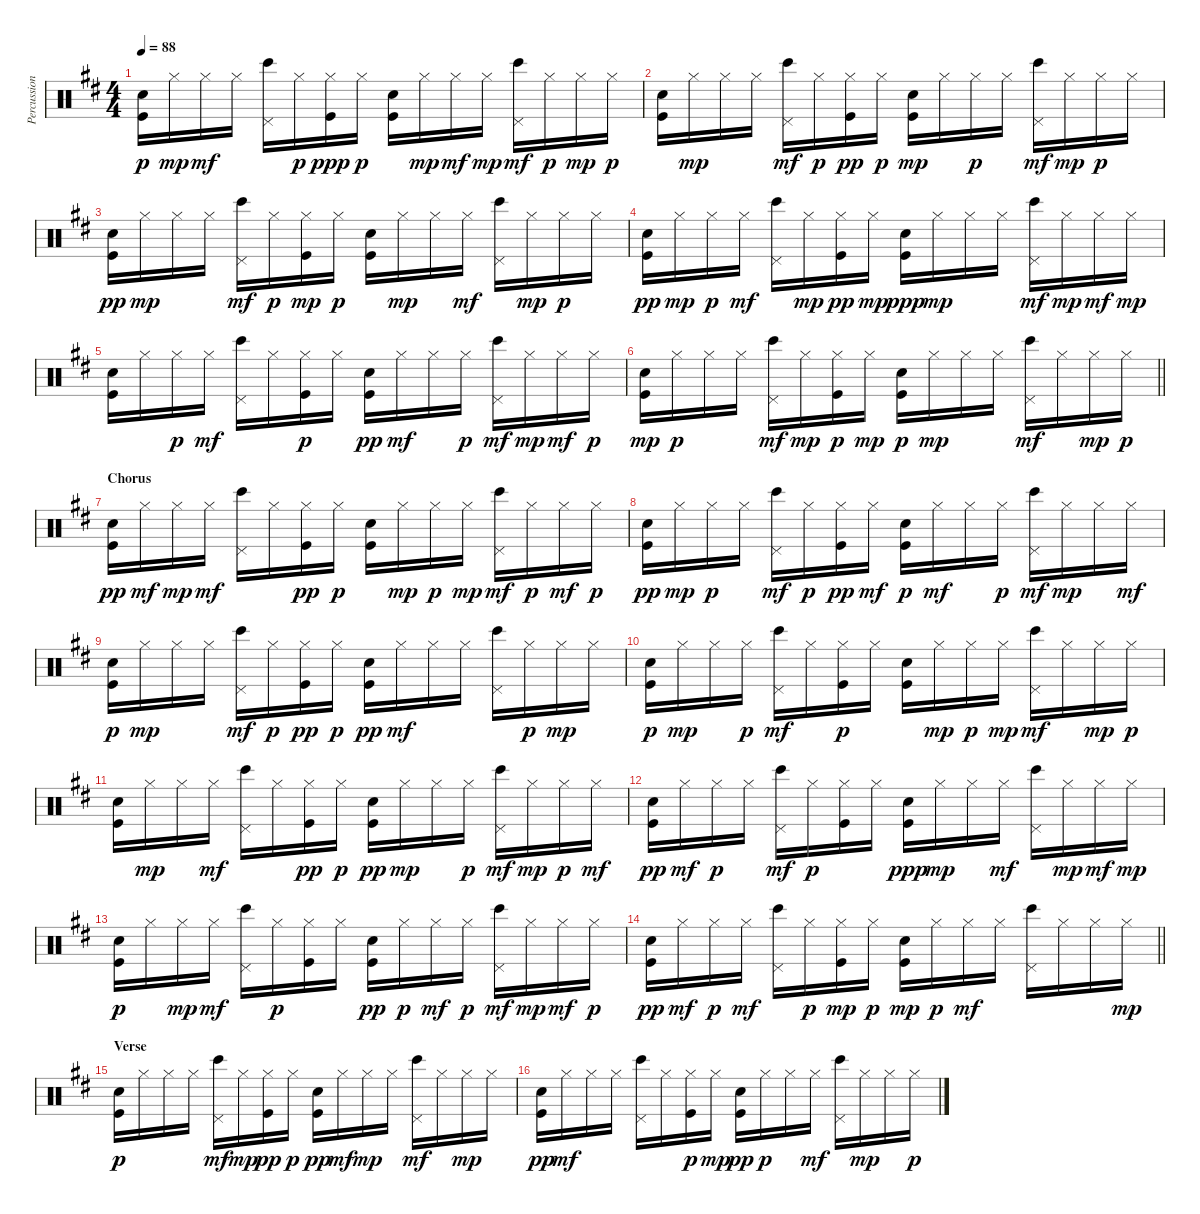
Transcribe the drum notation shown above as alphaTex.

\track ("Percussion" "Percussion") {instrument percussion}
\staff {score}
\articulation defaults
\ts (4 4)
\tempo 88
\clef neutral
\ks d
("Snare (hit)" "Kick (hit)").16{dy p} "Hi-Hat (closed)".16{dy mp} "Hi-Hat (closed)".16{dy mf} "Hi-Hat (closed)".16 ("Bongo High (hit)" "Pedal Hi-Hat (hit)").16 "Hi-Hat (closed)".16{dy p} ("Hi-Hat (closed)" "Kick (hit)").16{dy ppp} "Hi-Hat (closed)".16{dy p} ("Snare (hit)" "Kick (hit)").16 "Hi-Hat (closed)".16{dy mp} "Hi-Hat (closed)".16{dy mf} "Hi-Hat (closed)".16{dy mp} ("Bongo High (hit)" "Pedal Hi-Hat (hit)").16{dy mf} "Hi-Hat (closed)".16{dy p} "Hi-Hat (closed)".16{dy mp} "Hi-Hat (closed)".16{dy p} |
("Snare (hit)" "Kick (hit)").16 "Hi-Hat (closed)".16{dy mp} "Hi-Hat (closed)".16 "Hi-Hat (closed)".16 ("Bongo High (hit)" "Pedal Hi-Hat (hit)").16{dy mf} "Hi-Hat (closed)".16{dy p} ("Hi-Hat (closed)" "Kick (hit)").16{dy pp} "Hi-Hat (closed)".16{dy p} ("Snare (hit)" "Kick (hit)").16{dy mp} "Hi-Hat (closed)".16 "Hi-Hat (closed)".16{dy p} "Hi-Hat (closed)".16 ("Bongo High (hit)" "Pedal Hi-Hat (hit)").16{dy mf} "Hi-Hat (closed)".16{dy mp} "Hi-Hat (closed)".16{dy p} "Hi-Hat (closed)".16 |
("Snare (hit)" "Kick (hit)").16{dy pp} "Hi-Hat (closed)".16{dy mp} "Hi-Hat (closed)".16 "Hi-Hat (closed)".16 ("Bongo High (hit)" "Pedal Hi-Hat (hit)").16{dy mf} "Hi-Hat (closed)".16{dy p} ("Hi-Hat (closed)" "Kick (hit)").16{dy mp} "Hi-Hat (closed)".16{dy p} ("Snare (hit)" "Kick (hit)").16 "Hi-Hat (closed)".16{dy mp} "Hi-Hat (closed)".16 "Hi-Hat (closed)".16{dy mf} ("Bongo High (hit)" "Pedal Hi-Hat (hit)").16 "Hi-Hat (closed)".16{dy mp} "Hi-Hat (closed)".16{dy p} "Hi-Hat (closed)".16 |
("Snare (hit)" "Kick (hit)").16{dy pp} "Hi-Hat (closed)".16{dy mp} "Hi-Hat (closed)".16{dy p} "Hi-Hat (closed)".16{dy mf} ("Bongo High (hit)" "Pedal Hi-Hat (hit)").16 "Hi-Hat (closed)".16{dy mp} ("Hi-Hat (closed)" "Kick (hit)").16{dy pp} "Hi-Hat (closed)".16{dy mp} ("Snare (hit)" "Kick (hit)").16{dy ppp} "Hi-Hat (closed)".16{dy mp} "Hi-Hat (closed)".16 "Hi-Hat (closed)".16 ("Bongo High (hit)" "Pedal Hi-Hat (hit)").16{dy mf} "Hi-Hat (closed)".16{dy mp} "Hi-Hat (closed)".16{dy mf} "Hi-Hat (closed)".16{dy mp} |
("Snare (hit)" "Kick (hit)").16 "Hi-Hat (closed)".16 "Hi-Hat (closed)".16{dy p} "Hi-Hat (closed)".16{dy mf} ("Bongo High (hit)" "Pedal Hi-Hat (hit)").16 "Hi-Hat (closed)".16 ("Hi-Hat (closed)" "Kick (hit)").16{dy p} "Hi-Hat (closed)".16 ("Snare (hit)" "Kick (hit)").16{dy pp} "Hi-Hat (closed)".16{dy mf} "Hi-Hat (closed)".16 "Hi-Hat (closed)".16{dy p} ("Bongo High (hit)" "Pedal Hi-Hat (hit)").16{dy mf} "Hi-Hat (closed)".16{dy mp} "Hi-Hat (closed)".16{dy mf} "Hi-Hat (closed)".16{dy p} |
\barLineRight lightlight
("Snare (hit)" "Kick (hit)").16{dy mp} "Hi-Hat (closed)".16{dy p} "Hi-Hat (closed)".16 "Hi-Hat (closed)".16 ("Bongo High (hit)" "Pedal Hi-Hat (hit)").16{dy mf} "Hi-Hat (closed)".16{dy mp} ("Hi-Hat (closed)" "Kick (hit)").16{dy p} "Hi-Hat (closed)".16{dy mp} ("Snare (hit)" "Kick (hit)").16{dy p} "Hi-Hat (closed)".16{dy mp} "Hi-Hat (closed)".16 "Hi-Hat (closed)".16 ("Bongo High (hit)" "Pedal Hi-Hat (hit)").16{dy mf} "Hi-Hat (closed)".16 "Hi-Hat (closed)".16{dy mp} "Hi-Hat (closed)".16{dy p} |
\section ("" "Chorus")
("Snare (hit)" "Kick (hit)").16{dy pp} "Hi-Hat (closed)".16{dy mf} "Hi-Hat (closed)".16{dy mp} "Hi-Hat (closed)".16{dy mf} ("Bongo High (hit)" "Pedal Hi-Hat (hit)").16 "Hi-Hat (closed)".16 ("Hi-Hat (closed)" "Kick (hit)").16{dy pp} "Hi-Hat (closed)".16{dy p} ("Snare (hit)" "Kick (hit)").16 "Hi-Hat (closed)".16{dy mp} "Hi-Hat (closed)".16{dy p} "Hi-Hat (closed)".16{dy mp} ("Bongo High (hit)" "Pedal Hi-Hat (hit)").16{dy mf} "Hi-Hat (closed)".16{dy p} "Hi-Hat (closed)".16{dy mf} "Hi-Hat (closed)".16{dy p} |
("Snare (hit)" "Kick (hit)").16{dy pp} "Hi-Hat (closed)".16{dy mp} "Hi-Hat (closed)".16{dy p} "Hi-Hat (closed)".16 ("Bongo High (hit)" "Pedal Hi-Hat (hit)").16{dy mf} "Hi-Hat (closed)".16{dy p} ("Hi-Hat (closed)" "Kick (hit)").16{dy pp} "Hi-Hat (closed)".16{dy mf} ("Snare (hit)" "Kick (hit)").16{dy p} "Hi-Hat (closed)".16{dy mf} "Hi-Hat (closed)".16 "Hi-Hat (closed)".16{dy p} ("Bongo High (hit)" "Pedal Hi-Hat (hit)").16{dy mf} "Hi-Hat (closed)".16{dy mp} "Hi-Hat (closed)".16 "Hi-Hat (closed)".16{dy mf} |
("Snare (hit)" "Kick (hit)").16{dy p} "Hi-Hat (closed)".16{dy mp} "Hi-Hat (closed)".16 "Hi-Hat (closed)".16 ("Bongo High (hit)" "Pedal Hi-Hat (hit)").16{dy mf} "Hi-Hat (closed)".16{dy p} ("Hi-Hat (closed)" "Kick (hit)").16{dy pp} "Hi-Hat (closed)".16{dy p} ("Snare (hit)" "Kick (hit)").16{dy pp} "Hi-Hat (closed)".16{dy mf} "Hi-Hat (closed)".16 "Hi-Hat (closed)".16 ("Bongo High (hit)" "Pedal Hi-Hat (hit)").16 "Hi-Hat (closed)".16{dy p} "Hi-Hat (closed)".16{dy mp} "Hi-Hat (closed)".16 |
("Snare (hit)" "Kick (hit)").16{dy p} "Hi-Hat (closed)".16{dy mp} "Hi-Hat (closed)".16 "Hi-Hat (closed)".16{dy p} ("Bongo High (hit)" "Pedal Hi-Hat (hit)").16{dy mf} "Hi-Hat (closed)".16 ("Hi-Hat (closed)" "Kick (hit)").16{dy p} "Hi-Hat (closed)".16 ("Snare (hit)" "Kick (hit)").16 "Hi-Hat (closed)".16{dy mp} "Hi-Hat (closed)".16{dy p} "Hi-Hat (closed)".16{dy mp} ("Bongo High (hit)" "Pedal Hi-Hat (hit)").16{dy mf} "Hi-Hat (closed)".16 "Hi-Hat (closed)".16{dy mp} "Hi-Hat (closed)".16{dy p} |
("Snare (hit)" "Kick (hit)").16 "Hi-Hat (closed)".16{dy mp} "Hi-Hat (closed)".16 "Hi-Hat (closed)".16{dy mf} ("Bongo High (hit)" "Pedal Hi-Hat (hit)").16 "Hi-Hat (closed)".16 ("Hi-Hat (closed)" "Kick (hit)").16{dy pp} "Hi-Hat (closed)".16{dy p} ("Snare (hit)" "Kick (hit)").16{dy pp} "Hi-Hat (closed)".16{dy mp} "Hi-Hat (closed)".16 "Hi-Hat (closed)".16{dy p} ("Bongo High (hit)" "Pedal Hi-Hat (hit)").16{dy mf} "Hi-Hat (closed)".16{dy mp} "Hi-Hat (closed)".16{dy p} "Hi-Hat (closed)".16{dy mf} |
("Snare (hit)" "Kick (hit)").16{dy pp} "Hi-Hat (closed)".16{dy mf} "Hi-Hat (closed)".16{dy p} "Hi-Hat (closed)".16 ("Bongo High (hit)" "Pedal Hi-Hat (hit)").16{dy mf} "Hi-Hat (closed)".16{dy p} ("Hi-Hat (closed)" "Kick (hit)").16 "Hi-Hat (closed)".16 ("Snare (hit)" "Kick (hit)").16{dy ppp} "Hi-Hat (closed)".16{dy mp} "Hi-Hat (closed)".16 "Hi-Hat (closed)".16{dy mf} ("Bongo High (hit)" "Pedal Hi-Hat (hit)").16 "Hi-Hat (closed)".16{dy mp} "Hi-Hat (closed)".16{dy mf} "Hi-Hat (closed)".16{dy mp} |
("Snare (hit)" "Kick (hit)").16{dy p} "Hi-Hat (closed)".16 "Hi-Hat (closed)".16{dy mp} "Hi-Hat (closed)".16{dy mf} ("Bongo High (hit)" "Pedal Hi-Hat (hit)").16 "Hi-Hat (closed)".16{dy p} ("Hi-Hat (closed)" "Kick (hit)").16 "Hi-Hat (closed)".16 ("Snare (hit)" "Kick (hit)").16{dy pp} "Hi-Hat (closed)".16{dy p} "Hi-Hat (closed)".16{dy mf} "Hi-Hat (closed)".16{dy p} ("Bongo High (hit)" "Pedal Hi-Hat (hit)").16{dy mf} "Hi-Hat (closed)".16{dy mp} "Hi-Hat (closed)".16{dy mf} "Hi-Hat (closed)".16{dy p} |
\barLineRight lightlight
("Snare (hit)" "Kick (hit)").16{dy pp} "Hi-Hat (closed)".16{dy mf} "Hi-Hat (closed)".16{dy p} "Hi-Hat (closed)".16{dy mf} ("Bongo High (hit)" "Pedal Hi-Hat (hit)").16 "Hi-Hat (closed)".16{dy p} ("Hi-Hat (closed)" "Kick (hit)").16{dy mp} "Hi-Hat (closed)".16{dy p} ("Snare (hit)" "Kick (hit)").16{dy mp} "Hi-Hat (closed)".16{dy p} "Hi-Hat (closed)".16{dy mf} "Hi-Hat (closed)".16 ("Bongo High (hit)" "Pedal Hi-Hat (hit)").16 "Hi-Hat (closed)".16 "Hi-Hat (closed)".16 "Hi-Hat (closed)".16{dy mp} |
\section ("" "Verse")
("Snare (hit)" "Kick (hit)").16{dy p} "Hi-Hat (closed)".16 "Hi-Hat (closed)".16 "Hi-Hat (closed)".16 ("Bongo High (hit)" "Pedal Hi-Hat (hit)").16{dy mf} "Hi-Hat (closed)".16{dy mp} ("Hi-Hat (closed)" "Kick (hit)").16{dy pp} "Hi-Hat (closed)".16{dy p} ("Snare (hit)" "Kick (hit)").16{dy pp} "Hi-Hat (closed)".16{dy mf} "Hi-Hat (closed)".16{dy mp} "Hi-Hat (closed)".16 ("Bongo High (hit)" "Pedal Hi-Hat (hit)").16{dy mf} "Hi-Hat (closed)".16 "Hi-Hat (closed)".16{dy mp} "Hi-Hat (closed)".16 |
("Snare (hit)" "Kick (hit)").16{dy pp} "Hi-Hat (closed)".16{dy mf} "Hi-Hat (closed)".16 "Hi-Hat (closed)".16 ("Bongo High (hit)" "Pedal Hi-Hat (hit)").16 "Hi-Hat (closed)".16 ("Hi-Hat (closed)" "Kick (hit)").16{dy p} "Hi-Hat (closed)".16{dy mp} ("Snare (hit)" "Kick (hit)").16{dy pp} "Hi-Hat (closed)".16{dy p} "Hi-Hat (closed)".16 "Hi-Hat (closed)".16{dy mf} ("Bongo High (hit)" "Pedal Hi-Hat (hit)").16 "Hi-Hat (closed)".16{dy mp} "Hi-Hat (closed)".16 "Hi-Hat (closed)".16{dy p}
